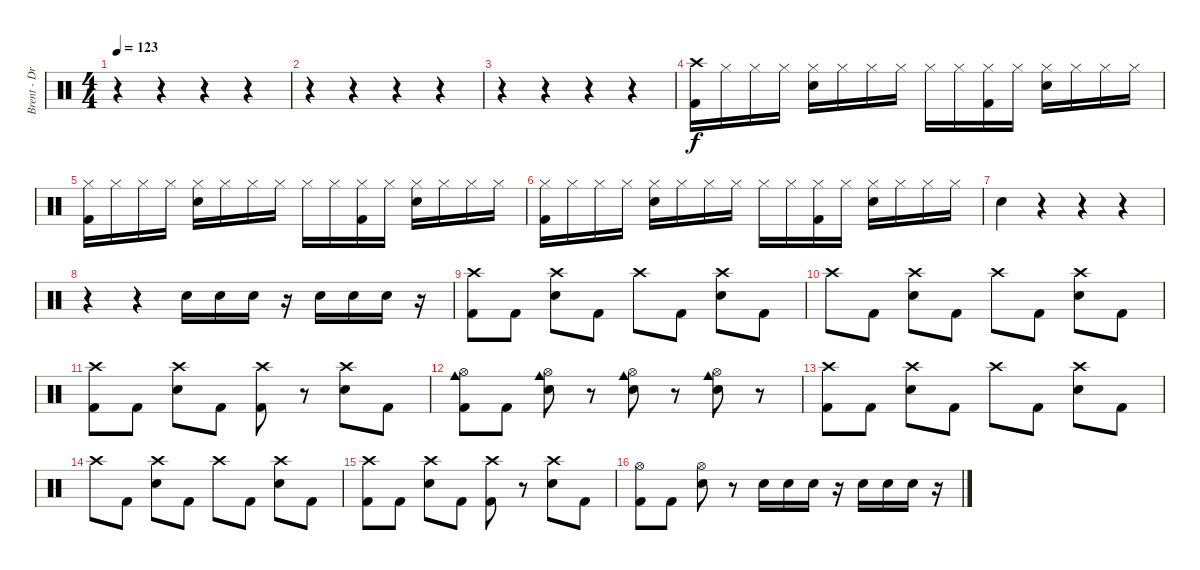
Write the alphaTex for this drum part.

\track ("Brent - Drums" "Brent - Dr") {instrument percussion}
\staff {score}
\articulation defaults
\ts (4 4)
\tempo 123
\clef neutral
\ks c
r.4{dy fff} r.4 r.4 r.4 |
r.4 r.4 r.4 r.4 |
r.4 r.4 r.4 r.4 |
("Crash high (hit)" "Kick (hit) 2").16{dy f} "Hi-Hat (closed)".16 "Hi-Hat (closed)".16 "Hi-Hat (closed)".16 ("Hi-Hat (closed)" "Snare (hit) 2").16 "Hi-Hat (closed)".16 "Hi-Hat (closed)".16 "Hi-Hat (closed)".16 "Hi-Hat (closed)".16 "Hi-Hat (closed)".16 ("Hi-Hat (closed)" "Kick (hit) 2").16 "Hi-Hat (closed)".16 ("Hi-Hat (closed)" "Snare (hit) 2").16 "Hi-Hat (closed)".16 "Hi-Hat (closed)".16 "Hi-Hat (closed)".16 |
("Hi-Hat (closed)" "Kick (hit) 2").16 "Hi-Hat (closed)".16 "Hi-Hat (closed)".16 "Hi-Hat (closed)".16 ("Hi-Hat (closed)" "Snare (hit) 2").16 "Hi-Hat (closed)".16 "Hi-Hat (closed)".16 "Hi-Hat (closed)".16 "Hi-Hat (closed)".16 "Hi-Hat (closed)".16 ("Hi-Hat (closed)" "Kick (hit) 2").16 "Hi-Hat (closed)".16 ("Hi-Hat (closed)" "Snare (hit) 2").16 "Hi-Hat (closed)".16 "Hi-Hat (closed)".16 "Hi-Hat (closed)".16 |
("Hi-Hat (closed)" "Kick (hit) 2").16 "Hi-Hat (closed)".16 "Hi-Hat (closed)".16 "Hi-Hat (closed)".16 ("Hi-Hat (closed)" "Snare (hit) 2").16 "Hi-Hat (closed)".16 "Hi-Hat (closed)".16 "Hi-Hat (closed)".16 "Hi-Hat (closed)".16 "Hi-Hat (closed)".16 ("Hi-Hat (closed)" "Kick (hit) 2").16 "Hi-Hat (closed)".16 ("Hi-Hat (closed)" "Snare (hit) 2").16 "Hi-Hat (closed)".16 "Hi-Hat (closed)".16 "Hi-Hat (closed)".16 |
"Snare (hit) 2".4 r.4 r.4 r.4 |
r.4 r.4 "Snare (hit) 2".16 "Snare (hit) 2".16 "Snare (hit) 2".16 r.16 "Snare (hit) 2".16 "Snare (hit) 2".16 "Snare (hit) 2".16 r.16 |
("Crash high (hit)" "Kick (hit) 2").8 "Kick (hit) 2".8 ("Crash high (hit)" "Snare (hit) 2").8 "Kick (hit) 2".8 "Crash high (hit)".8 "Kick (hit) 2".8 ("Crash high (hit)" "Snare (hit) 2").8 "Kick (hit) 2".8 |
"Crash high (hit)".8 "Kick (hit) 2".8 ("Crash high (hit)" "Snare (hit) 2").8 "Kick (hit) 2".8 "Crash high (hit)".8 "Kick (hit) 2".8 ("Crash high (hit)" "Snare (hit) 2").8 "Kick (hit) 2".8 |
("Crash high (hit)" "Kick (hit) 2").8 "Kick (hit) 2".8 ("Crash high (hit)" "Snare (hit) 2").8 "Kick (hit) 2".8 ("Crash high (hit)" "Kick (hit) 2").8 r.8 ("Crash high (hit)" "Snare (hit) 2").8 "Kick (hit) 2".8 |
("Hi-Hat (open)" "Cowbell medium (hit)" "Kick (hit) 2").8 "Kick (hit) 2".8 ("Hi-Hat (open)" "Snare (hit) 2" "Cowbell medium (hit)").8 r.8 ("Hi-Hat (open)" "Snare (hit) 2" "Cowbell medium (hit)").8 r.8 ("Hi-Hat (open)" "Snare (hit) 2" "Cowbell medium (hit)").8 r.8 |
("Crash high (hit)" "Kick (hit) 2").8 "Kick (hit) 2".8 ("Crash high (hit)" "Snare (hit) 2").8 "Kick (hit) 2".8 "Crash high (hit)".8 "Kick (hit) 2".8 ("Crash high (hit)" "Snare (hit) 2").8 "Kick (hit) 2".8 |
"Crash high (hit)".8 "Kick (hit) 2".8 ("Crash high (hit)" "Snare (hit) 2").8 "Kick (hit) 2".8 "Crash high (hit)".8 "Kick (hit) 2".8 ("Crash high (hit)" "Snare (hit) 2").8 "Kick (hit) 2".8 |
("Crash high (hit)" "Kick (hit) 2").8 "Kick (hit) 2".8 ("Crash high (hit)" "Snare (hit) 2").8 "Kick (hit) 2".8 ("Crash high (hit)" "Kick (hit) 2").8 r.8 ("Crash high (hit)" "Snare (hit) 2").8 "Kick (hit) 2".8 |
("Hi-Hat (open)" "Kick (hit) 2").8 "Kick (hit) 2".8 ("Hi-Hat (open)" "Snare (hit) 2").8 r.8 "Snare (hit) 2".16 "Snare (hit) 2".16 "Snare (hit) 2".16 r.16 "Snare (hit) 2".16 "Snare (hit) 2".16 "Snare (hit) 2".16 r.16
